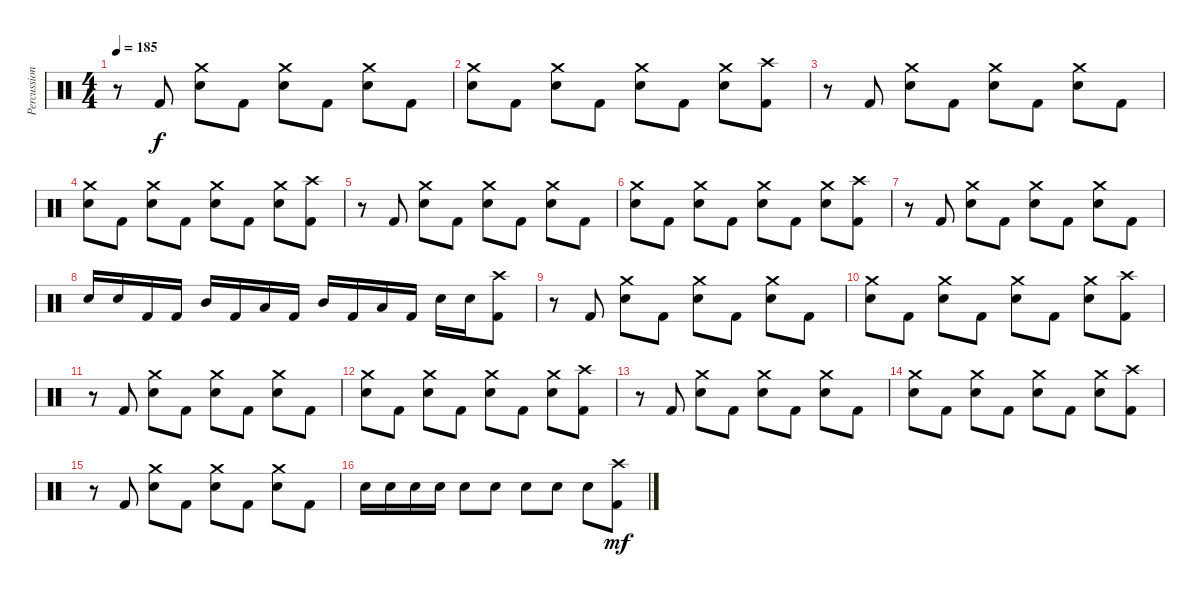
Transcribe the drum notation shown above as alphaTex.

\track ("Percussions" "Percussion") {instrument percussion}
\staff {score}
\articulation defaults
\ts (4 4)
\tempo 185
\clef neutral
\ks c
r.8{dy f} "Kick (hit) 2".8 ("Electric Snare (hit)" "Crash medium (hit)").8 "Kick (hit) 2".8 ("Electric Snare (hit)" "Crash medium (hit)").8 "Kick (hit) 2".8 ("Electric Snare (hit)" "Crash medium (hit)").8 "Kick (hit) 2".8 |
("Electric Snare (hit)" "Crash medium (hit)").8 "Kick (hit) 2".8 ("Electric Snare (hit)" "Crash medium (hit)").8 "Kick (hit) 2".8 ("Electric Snare (hit)" "Crash medium (hit)").8 "Kick (hit) 2".8 ("Electric Snare (hit)" "Crash medium (hit)").8 ("Kick (hit) 2" "Crash high (hit)").8 |
r.8 "Kick (hit) 2".8 ("Electric Snare (hit)" "Crash medium (hit)").8 "Kick (hit) 2".8 ("Electric Snare (hit)" "Crash medium (hit)").8 "Kick (hit) 2".8 ("Electric Snare (hit)" "Crash medium (hit)").8 "Kick (hit) 2".8 |
("Electric Snare (hit)" "Crash medium (hit)").8 "Kick (hit) 2".8 ("Electric Snare (hit)" "Crash medium (hit)").8 "Kick (hit) 2".8 ("Electric Snare (hit)" "Crash medium (hit)").8 "Kick (hit) 2".8 ("Electric Snare (hit)" "Crash medium (hit)").8 ("Kick (hit) 2" "Crash high (hit)").8 |
r.8 "Kick (hit) 2".8 ("Electric Snare (hit)" "Crash medium (hit)").8 "Kick (hit) 2".8 ("Electric Snare (hit)" "Crash medium (hit)").8 "Kick (hit) 2".8 ("Electric Snare (hit)" "Crash medium (hit)").8 "Kick (hit) 2".8 |
("Electric Snare (hit)" "Crash medium (hit)").8 "Kick (hit) 2".8 ("Electric Snare (hit)" "Crash medium (hit)").8 "Kick (hit) 2".8 ("Electric Snare (hit)" "Crash medium (hit)").8 "Kick (hit) 2".8 ("Electric Snare (hit)" "Crash medium (hit)").8 ("Kick (hit) 2" "Crash high (hit)").8 |
r.8 "Kick (hit) 2".8 ("Electric Snare (hit)" "Crash medium (hit)").8 "Kick (hit) 2".8 ("Electric Snare (hit)" "Crash medium (hit)").8 "Kick (hit) 2".8 ("Electric Snare (hit)" "Crash medium (hit)").8 "Kick (hit) 2".8 |
"Electric Snare (hit)".16 "Electric Snare (hit)".16 "Kick (hit) 2".16 "Kick (hit) 2".16 "Mid Tom (hit)".16 "Kick (hit) 2".16 "Low Tom (hit)".16 "Kick (hit) 2".16 "Mid Tom (hit)".16 "Kick (hit) 2".16 "Low Tom (hit)".16 "Kick (hit) 2".16 "Electric Snare (hit)".16 "Electric Snare (hit)".16 ("Kick (hit) 2" "Crash high (hit)").8 |
r.8 "Kick (hit) 2".8 ("Electric Snare (hit)" "Crash medium (hit)").8 "Kick (hit) 2".8 ("Electric Snare (hit)" "Crash medium (hit)").8 "Kick (hit) 2".8 ("Electric Snare (hit)" "Crash medium (hit)").8 "Kick (hit) 2".8 |
("Electric Snare (hit)" "Crash medium (hit)").8 "Kick (hit) 2".8 ("Electric Snare (hit)" "Crash medium (hit)").8 "Kick (hit) 2".8 ("Electric Snare (hit)" "Crash medium (hit)").8 "Kick (hit) 2".8 ("Electric Snare (hit)" "Crash medium (hit)").8 ("Kick (hit) 2" "Crash high (hit)").8 |
r.8 "Kick (hit) 2".8 ("Electric Snare (hit)" "Crash medium (hit)").8 "Kick (hit) 2".8 ("Electric Snare (hit)" "Crash medium (hit)").8 "Kick (hit) 2".8 ("Electric Snare (hit)" "Crash medium (hit)").8 "Kick (hit) 2".8 |
("Electric Snare (hit)" "Crash medium (hit)").8 "Kick (hit) 2".8 ("Electric Snare (hit)" "Crash medium (hit)").8 "Kick (hit) 2".8 ("Electric Snare (hit)" "Crash medium (hit)").8 "Kick (hit) 2".8 ("Electric Snare (hit)" "Crash medium (hit)").8 ("Kick (hit) 2" "Crash high (hit)").8 |
r.8 "Kick (hit) 2".8 ("Electric Snare (hit)" "Crash medium (hit)").8 "Kick (hit) 2".8 ("Electric Snare (hit)" "Crash medium (hit)").8 "Kick (hit) 2".8 ("Electric Snare (hit)" "Crash medium (hit)").8 "Kick (hit) 2".8 |
("Electric Snare (hit)" "Crash medium (hit)").8 "Kick (hit) 2".8 ("Electric Snare (hit)" "Crash medium (hit)").8 "Kick (hit) 2".8 ("Electric Snare (hit)" "Crash medium (hit)").8 "Kick (hit) 2".8 ("Electric Snare (hit)" "Crash medium (hit)").8 ("Kick (hit) 2" "Crash high (hit)").8 |
r.8 "Kick (hit) 2".8 ("Electric Snare (hit)" "Crash medium (hit)").8 "Kick (hit) 2".8 ("Electric Snare (hit)" "Crash medium (hit)").8 "Kick (hit) 2".8 ("Electric Snare (hit)" "Crash medium (hit)").8 "Kick (hit) 2".8 |
"Electric Snare (hit)".16 "Electric Snare (hit)".16 "Electric Snare (hit)".16 "Electric Snare (hit)".16 "Electric Snare (hit)".8 "Electric Snare (hit)".8 "Electric Snare (hit)".8 "Electric Snare (hit)".8 "Electric Snare (hit)".8 ("Kick (hit) 2" "Crash high (hit)").8{dy mf}
